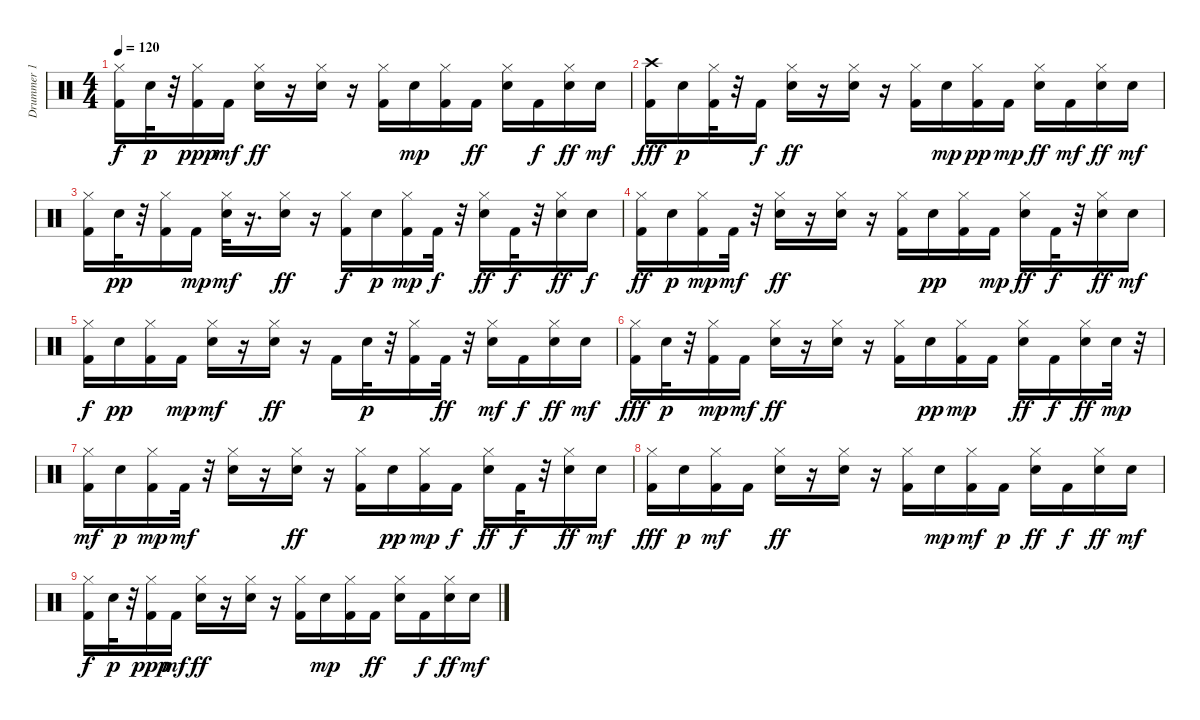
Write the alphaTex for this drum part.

\track ("Drummer 1" "Drummer 1") {instrument percussion}
\staff {score}
\articulation defaults
\ts (4 4)
\tempo 120
\clef neutral
\ks c
("Hi-Hat (closed)" "Kick (hit) 2").16{dy f} "Electric Snare (hit)".32{dy p} r.32 ("Kick (hit) 2" "Hi-Hat (closed)").16{dy ppp} "Kick (hit) 2".16{dy mf} ("Electric Snare (hit)" "Hi-Hat (closed)").16{dy ff} r.16 ("Hi-Hat (closed)" "Electric Snare (hit)").16 r.16 ("Hi-Hat (closed)" "Kick (hit) 2").16 "Electric Snare (hit)".16{dy mp} ("Hi-Hat (closed)" "Kick (hit) 2").16 "Kick (hit) 2".16{dy ff} ("Hi-Hat (closed)" "Electric Snare (hit)").16 "Kick (hit) 2".16{dy f} ("Hi-Hat (closed)" "Electric Snare (hit)").16{dy ff} "Electric Snare (hit)".16{dy mf} |
("Crash high (hit)" "Kick (hit) 2").16{dy fff} "Electric Snare (hit)".16{dy p} ("Hi-Hat (closed)" "Kick (hit) 2").32 r.32 "Kick (hit) 2".16{dy f} ("Hi-Hat (closed)" "Electric Snare (hit)").16{dy ff} r.16 ("Hi-Hat (closed)" "Electric Snare (hit)").16 r.16 ("Hi-Hat (closed)" "Kick (hit) 2").16 "Electric Snare (hit)".16{dy mp} ("Kick (hit) 2" "Hi-Hat (closed)").16{dy pp} "Kick (hit) 2".16{dy mp} ("Hi-Hat (closed)" "Electric Snare (hit)").16{dy ff} "Kick (hit) 2".16{dy mf} ("Hi-Hat (closed)" "Electric Snare (hit)").16{dy ff} "Electric Snare (hit)".16{dy mf} |
("Hi-Hat (closed)" "Kick (hit) 2").16 "Electric Snare (hit)".32{dy pp} r.32 ("Kick (hit) 2" "Hi-Hat (closed)").16 "Kick (hit) 2".16{dy mp} ("Electric Snare (hit)" "Hi-Hat (closed)").32{dy mf} r.16{d} ("Hi-Hat (closed)" "Electric Snare (hit)").16{dy ff} r.16 ("Hi-Hat (closed)" "Kick (hit) 2").16{dy f} "Electric Snare (hit)".16{dy p} ("Hi-Hat (closed)" "Kick (hit) 2").16{dy mp} "Kick (hit) 2".32{dy f} r.32 ("Hi-Hat (closed)" "Electric Snare (hit)").16{dy ff} "Kick (hit) 2".32{dy f} r.32 ("Hi-Hat (closed)" "Electric Snare (hit)").16{dy ff} "Electric Snare (hit)".16{dy f} |
("Hi-Hat (closed)" "Kick (hit) 2").16{dy ff} "Electric Snare (hit)".16{dy p} ("Hi-Hat (closed)" "Kick (hit) 2").16{dy mp} "Kick (hit) 2".32{dy mf} r.32 ("Hi-Hat (closed)" "Electric Snare (hit)").16{dy ff} r.16 ("Hi-Hat (closed)" "Electric Snare (hit)").16 r.16 ("Hi-Hat (closed)" "Kick (hit) 2").16 "Electric Snare (hit)".16{dy pp} ("Kick (hit) 2" "Hi-Hat (closed)").16 "Kick (hit) 2".16{dy mp} ("Hi-Hat (closed)" "Electric Snare (hit)").16{dy ff} "Kick (hit) 2".32{dy f} r.32 ("Hi-Hat (closed)" "Electric Snare (hit)").16{dy ff} "Electric Snare (hit)".16{dy mf} |
("Hi-Hat (closed)" "Kick (hit) 2").16{dy f} "Electric Snare (hit)".16{dy pp} ("Kick (hit) 2" "Hi-Hat (closed)").16 "Kick (hit) 2".16{dy mp} ("Electric Snare (hit)" "Hi-Hat (closed)").16{dy mf} r.16 ("Hi-Hat (closed)" "Electric Snare (hit)").16{dy ff} r.16 "Kick (hit) 2".16 "Electric Snare (hit)".32{dy p} r.32 ("Hi-Hat (closed)" "Kick (hit) 2").16 "Kick (hit) 2".32{dy ff} r.32 ("Hi-Hat (closed)" "Electric Snare (hit)").16{dy mf} "Kick (hit) 2".16{dy f} ("Hi-Hat (closed)" "Electric Snare (hit)").16{dy ff} "Electric Snare (hit)".16{dy mf} |
("Hi-Hat (closed)" "Kick (hit) 2").16{dy fff} "Electric Snare (hit)".32{dy p} r.32 ("Hi-Hat (closed)" "Kick (hit) 2").16{dy mp} "Kick (hit) 2".16{dy mf} ("Hi-Hat (closed)" "Electric Snare (hit)").16{dy ff} r.16 ("Hi-Hat (closed)" "Electric Snare (hit)").16 r.16 ("Hi-Hat (closed)" "Kick (hit) 2").16 "Electric Snare (hit)".16{dy pp} ("Kick (hit) 2" "Hi-Hat (closed)").16{dy mp} "Kick (hit) 2".16 ("Hi-Hat (closed)" "Electric Snare (hit)").16{dy ff} "Kick (hit) 2".16{dy f} ("Hi-Hat (closed)" "Electric Snare (hit)").16{dy ff} "Electric Snare (hit)".32{dy mp} r.32 |
("Hi-Hat (closed)" "Kick (hit) 2").16{dy mf} "Electric Snare (hit)".16{dy p} ("Kick (hit) 2" "Hi-Hat (closed)").16{dy mp} "Kick (hit) 2".32{dy mf} r.32 ("Electric Snare (hit)" "Hi-Hat (closed)").16 r.16 ("Hi-Hat (closed)" "Electric Snare (hit)").16{dy ff} r.16 ("Hi-Hat (closed)" "Kick (hit) 2").16 "Electric Snare (hit)".16{dy pp} ("Hi-Hat (closed)" "Kick (hit) 2").16{dy mp} "Kick (hit) 2".16{dy f} ("Hi-Hat (closed)" "Electric Snare (hit)").16{dy ff} "Kick (hit) 2".32{dy f} r.32 ("Hi-Hat (closed)" "Electric Snare (hit)").16{dy ff} "Electric Snare (hit)".16{dy mf} |
("Hi-Hat (closed)" "Kick (hit) 2").16{dy fff} "Electric Snare (hit)".16{dy p} ("Hi-Hat (closed)" "Kick (hit) 2").16{dy mf} "Kick (hit) 2".16 ("Hi-Hat (closed)" "Electric Snare (hit)").16{dy ff} r.16 ("Hi-Hat (closed)" "Electric Snare (hit)").16 r.16 ("Hi-Hat (closed)" "Kick (hit) 2").16 "Electric Snare (hit)".16{dy mp} ("Kick (hit) 2" "Hi-Hat (closed)").16{dy mf} "Kick (hit) 2".16{dy p} ("Hi-Hat (closed)" "Electric Snare (hit)").16{dy ff} "Kick (hit) 2".16{dy f} ("Hi-Hat (closed)" "Electric Snare (hit)").16{dy ff} "Electric Snare (hit)".16{dy mf} |
("Hi-Hat (closed)" "Kick (hit) 2").16{dy f} "Electric Snare (hit)".32{dy p} r.32 ("Kick (hit) 2" "Hi-Hat (closed)").16{dy ppp} "Kick (hit) 2".16{dy mf} ("Electric Snare (hit)" "Hi-Hat (closed)").16{dy ff} r.16 ("Hi-Hat (closed)" "Electric Snare (hit)").16 r.16 ("Hi-Hat (closed)" "Kick (hit) 2").16 "Electric Snare (hit)".16{dy mp} ("Hi-Hat (closed)" "Kick (hit) 2").16 "Kick (hit) 2".16{dy ff} ("Hi-Hat (closed)" "Electric Snare (hit)").16 "Kick (hit) 2".16{dy f} ("Hi-Hat (closed)" "Electric Snare (hit)").16{dy ff} "Electric Snare (hit)".16{dy mf}
